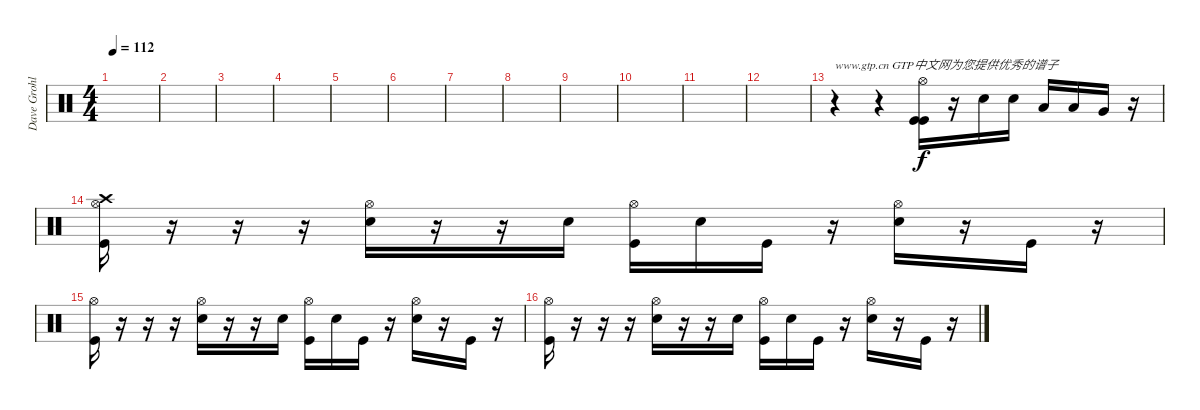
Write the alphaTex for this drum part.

\track ("Dave Grohl (Drums)" "Dave Grohl") {instrument percussion}
\staff {score}
\articulation defaults
\ts (4 4)
\tempo 112
\clef neutral
\ks c
|
|
|
|
|
|
|
|
|
|
|
|
r.4{txt "www.gtp.cn GTP中文网为您提供优秀的谱子"} r.4 ("Hi-Hat (open)" "Kick (hit)" "Kick (hit)").16 r.16 "Electric Snare (hit)".16 "Electric Snare (hit)".16 "Low Floor Tom (hit)".16 "Low Floor Tom (hit)".16 "Very Low Tom (hit)".16 r.16 |
("Hi-Hat (open)" "Kick (hit)" "Crash high (hit)").16 r.16 r.16 r.16 ("Hi-Hat (open)" "Electric Snare (hit)").16 r.16 r.16 "Electric Snare (hit)".16 ("Hi-Hat (open)" "Kick (hit)").16 "Electric Snare (hit)".16 "Kick (hit)".16 r.16 ("Hi-Hat (open)" "Electric Snare (hit)").16 r.16 "Kick (hit)".16 r.16 |
("Hi-Hat (open)" "Kick (hit)").16 r.16 r.16 r.16 ("Hi-Hat (open)" "Electric Snare (hit)").16 r.16 r.16 "Electric Snare (hit)".16 ("Hi-Hat (open)" "Kick (hit)").16 "Electric Snare (hit)".16 "Kick (hit)".16 r.16 ("Hi-Hat (open)" "Electric Snare (hit)").16 r.16 "Kick (hit)".16 r.16 |
("Hi-Hat (open)" "Kick (hit)").16 r.16 r.16 r.16 ("Hi-Hat (open)" "Electric Snare (hit)").16 r.16 r.16 "Electric Snare (hit)".16 ("Hi-Hat (open)" "Kick (hit)").16 "Electric Snare (hit)".16 "Kick (hit)".16 r.16 ("Hi-Hat (open)" "Electric Snare (hit)").16 r.16 "Kick (hit)".16 r.16
